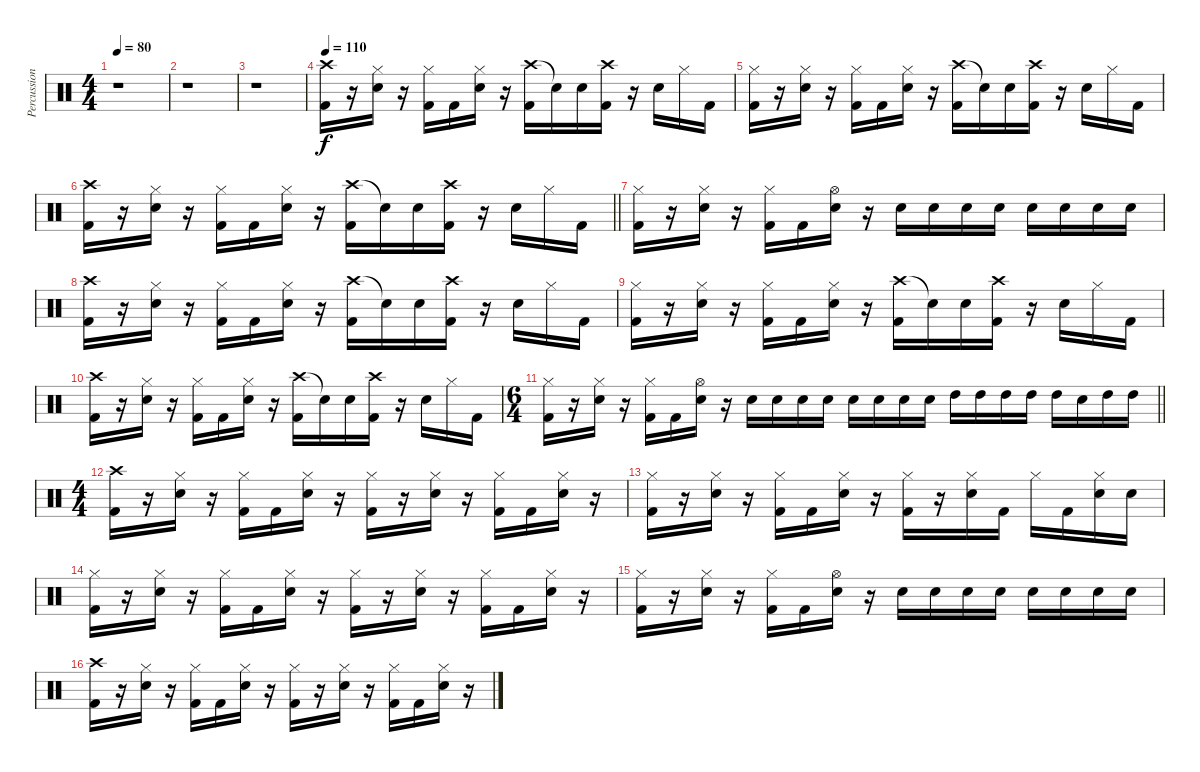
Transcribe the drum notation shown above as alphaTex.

\track ("Percussion" "Percussion") {instrument percussion}
\staff {score}
\articulation defaults
\ts (4 4)
\tempo 80
\clef neutral
\ks c
r.1{dy f} |
r.1 |
r.1 |
\tempo 110
("Crash high (hit)" "Kick (hit) 2").16 r.16 ("Hi-Hat (closed)" "Electric Snare (hit)").16 r.16 ("Hi-Hat (closed)" "Kick (hit) 2").16 "Kick (hit) 2".16 ("Hi-Hat (closed)" "Electric Snare (hit)").16 r.16 ("Crash high (hit)" "Kick (hit) 2").16 "Snare (hit)"{t}.16 "Electric Snare (hit)".16 ("Crash high (hit)" "Kick (hit) 2").16 r.16 "Electric Snare (hit)".16 "Hi-Hat (closed)".16 "Kick (hit) 2".16 |
("Hi-Hat (closed)" "Kick (hit) 2").16 r.16 ("Hi-Hat (closed)" "Electric Snare (hit)").16 r.16 ("Hi-Hat (closed)" "Kick (hit) 2").16 "Kick (hit) 2".16 ("Hi-Hat (closed)" "Electric Snare (hit)").16 r.16 ("Crash high (hit)" "Kick (hit) 2").16 "Snare (hit)"{t}.16 "Electric Snare (hit)".16 ("Crash high (hit)" "Kick (hit) 2").16 r.16 "Electric Snare (hit)".16 "Hi-Hat (closed)".16 "Kick (hit) 2".16 |
\barLineRight lightlight
("Crash high (hit)" "Kick (hit) 2").16 r.16 ("Hi-Hat (closed)" "Electric Snare (hit)").16 r.16 ("Hi-Hat (closed)" "Kick (hit) 2").16 "Kick (hit) 2".16 ("Hi-Hat (closed)" "Electric Snare (hit)").16 r.16 ("Crash high (hit)" "Kick (hit) 2").16 "Snare (hit)"{t}.16 "Electric Snare (hit)".16 ("Crash high (hit)" "Kick (hit) 2").16 r.16 "Electric Snare (hit)".16 "Hi-Hat (closed)".16 "Kick (hit) 2".16 |
("Hi-Hat (closed)" "Kick (hit) 2").16 r.16 ("Hi-Hat (closed)" "Electric Snare (hit)").16 r.16 ("Hi-Hat (closed)" "Kick (hit) 2").16 "Kick (hit) 2".16 ("Hi-Hat (open)" "Electric Snare (hit)").16 r.16 "Electric Snare (hit)".16 "Electric Snare (hit)".16 "Electric Snare (hit)".16 "Electric Snare (hit)".16 "Electric Snare (hit)".16 "Electric Snare (hit)".16 "Electric Snare (hit)".16 "Electric Snare (hit)".16 |
("Crash high (hit)" "Kick (hit) 2").16 r.16 ("Hi-Hat (closed)" "Electric Snare (hit)").16 r.16 ("Hi-Hat (closed)" "Kick (hit) 2").16 "Kick (hit) 2".16 ("Hi-Hat (closed)" "Electric Snare (hit)").16 r.16 ("Crash high (hit)" "Kick (hit) 2").16 "Snare (hit)"{t}.16 "Electric Snare (hit)".16 ("Crash high (hit)" "Kick (hit) 2").16 r.16 "Electric Snare (hit)".16 "Hi-Hat (closed)".16 "Kick (hit) 2".16 |
("Hi-Hat (closed)" "Kick (hit) 2").16 r.16 ("Hi-Hat (closed)" "Electric Snare (hit)").16 r.16 ("Hi-Hat (closed)" "Kick (hit) 2").16 "Kick (hit) 2".16 ("Hi-Hat (closed)" "Electric Snare (hit)").16 r.16 ("Crash high (hit)" "Kick (hit) 2").16 "Snare (hit)"{t}.16 "Electric Snare (hit)".16 ("Crash high (hit)" "Kick (hit) 2").16 r.16 "Electric Snare (hit)".16 "Hi-Hat (closed)".16 "Kick (hit) 2".16 |
("Crash high (hit)" "Kick (hit) 2").16 r.16 ("Hi-Hat (closed)" "Electric Snare (hit)").16 r.16 ("Hi-Hat (closed)" "Kick (hit) 2").16 "Kick (hit) 2".16 ("Hi-Hat (closed)" "Electric Snare (hit)").16 r.16 ("Crash high (hit)" "Kick (hit) 2").16 "Snare (hit)"{t}.16 "Electric Snare (hit)".16 ("Crash high (hit)" "Kick (hit) 2").16 r.16 "Electric Snare (hit)".16 "Hi-Hat (closed)".16 "Kick (hit) 2".16 |
\ts (6 4)
\barLineRight lightlight
("Hi-Hat (closed)" "Kick (hit) 2").16 r.16 ("Hi-Hat (closed)" "Electric Snare (hit)").16 r.16 ("Hi-Hat (closed)" "Kick (hit) 2").16 "Kick (hit) 2".16 ("Hi-Hat (open)" "Electric Snare (hit)").16 r.16 "Electric Snare (hit)".16 "Electric Snare (hit)".16 "Electric Snare (hit)".16 "Electric Snare (hit)".16 "Electric Snare (hit)".16 "Electric Snare (hit)".16 "Electric Snare (hit)".16 "Electric Snare (hit)".16 "High Tom (hit)".16 "High Tom (hit)".16 "High Tom (hit)".16 "High Tom (hit)".16 "High Tom (hit)".16 "Snare (hit)"{x}.16 "High Tom (hit)".16 "High Tom (hit)".16 |
\ts (4 4)
("Crash high (hit)" "Kick (hit) 2").16 r.16 ("Hi-Hat (closed)" "Electric Snare (hit)").16 r.16 ("Hi-Hat (closed)" "Kick (hit) 2").16 "Kick (hit) 2".16 ("Hi-Hat (closed)" "Electric Snare (hit)").16 r.16 ("Hi-Hat (closed)" "Kick (hit) 2").16 r.16 ("Hi-Hat (closed)" "Electric Snare (hit)").16 r.16 ("Hi-Hat (closed)" "Kick (hit) 2").16 "Kick (hit) 2".16 ("Hi-Hat (closed)" "Electric Snare (hit)").16 r.16 |
("Hi-Hat (closed)" "Kick (hit) 2").16 r.16 ("Hi-Hat (closed)" "Electric Snare (hit)").16 r.16 ("Hi-Hat (closed)" "Kick (hit) 2").16 "Kick (hit) 2".16 ("Hi-Hat (closed)" "Electric Snare (hit)").16 r.16 ("Hi-Hat (closed)" "Kick (hit) 2").16 r.16 ("Hi-Hat (closed)" "Electric Snare (hit)").16 "Kick (hit) 2".16 "Hi-Hat (closed)".16 "Kick (hit) 2".16 ("Hi-Hat (closed)" "Electric Snare (hit)").16 "Electric Snare (hit)".16 |
("Hi-Hat (closed)" "Kick (hit) 2").16 r.16 ("Hi-Hat (closed)" "Electric Snare (hit)").16 r.16 ("Hi-Hat (closed)" "Kick (hit) 2").16 "Kick (hit) 2".16 ("Hi-Hat (closed)" "Electric Snare (hit)").16 r.16 ("Hi-Hat (closed)" "Kick (hit) 2").16 r.16 ("Hi-Hat (closed)" "Electric Snare (hit)").16 r.16 ("Hi-Hat (closed)" "Kick (hit) 2").16 "Kick (hit) 2".16 ("Hi-Hat (closed)" "Electric Snare (hit)").16 r.16 |
("Hi-Hat (closed)" "Kick (hit) 2").16 r.16 ("Hi-Hat (closed)" "Electric Snare (hit)").16 r.16 ("Hi-Hat (closed)" "Kick (hit) 2").16 "Kick (hit) 2".16 ("Hi-Hat (open)" "Electric Snare (hit)").16 r.16 "Electric Snare (hit)".16 "Electric Snare (hit)".16 "Electric Snare (hit)".16 "Electric Snare (hit)".16 "Electric Snare (hit)".16 "Electric Snare (hit)".16 "Electric Snare (hit)".16 "Electric Snare (hit)".16 |
("Crash high (hit)" "Kick (hit) 2").16 r.16 ("Hi-Hat (closed)" "Electric Snare (hit)").16 r.16 ("Hi-Hat (closed)" "Kick (hit) 2").16 "Kick (hit) 2".16 ("Hi-Hat (closed)" "Electric Snare (hit)").16 r.16 ("Hi-Hat (closed)" "Kick (hit) 2").16 r.16 ("Hi-Hat (closed)" "Electric Snare (hit)").16 r.16 ("Hi-Hat (closed)" "Kick (hit) 2").16 "Kick (hit) 2".16 ("Hi-Hat (closed)" "Electric Snare (hit)").16 r.16
